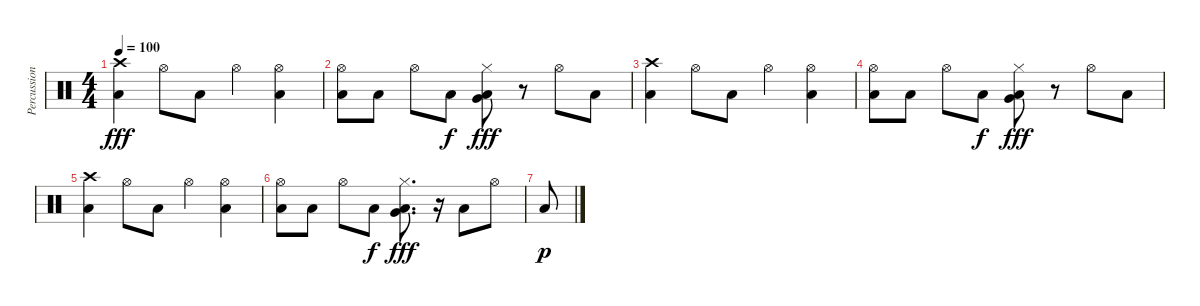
\track ("Percussion" "Percussion") {instrument percussion}
\staff {score}
\articulation defaults
\ts (4 4)
\tempo 100
\clef neutral
\ks c
("Low Floor Tom (hit)" "Crash high (hit)").4{dy fff} "Hi-Hat (open)".8 "Low Tom (hit)".8 "Hi-Hat (open)".4 ("Low Floor Tom (hit)" "Hi-Hat (open)").4 |
("Low Tom (hit)" "Hi-Hat (open)").8 "Low Tom (hit)".8 "Hi-Hat (open)".8 "Low Floor Tom (hit)".8{dy f} ("Low Floor Tom (hit)" "Very Low Tom (hit)" "Hi-Hat (closed)").8{dy fff} r.8 "Hi-Hat (open)".8 "Low Tom (hit)".8 |
("Low Floor Tom (hit)" "Crash high (hit)").4 "Hi-Hat (open)".8 "Low Tom (hit)".8 "Hi-Hat (open)".4 ("Low Floor Tom (hit)" "Hi-Hat (open)").4 |
("Low Tom (hit)" "Hi-Hat (open)").8 "Low Tom (hit)".8 "Hi-Hat (open)".8 "Low Floor Tom (hit)".8{dy f} ("Low Floor Tom (hit)" "Very Low Tom (hit)" "Hi-Hat (closed)").8{dy fff} r.8 "Hi-Hat (open)".8 "Low Tom (hit)".8 |
("Low Floor Tom (hit)" "Crash high (hit)").4 "Hi-Hat (open)".8 "Low Tom (hit)".8 "Hi-Hat (open)".4 ("Low Floor Tom (hit)" "Hi-Hat (open)").4 |
("Low Tom (hit)" "Hi-Hat (open)").8 "Low Tom (hit)".8 "Hi-Hat (open)".8 "Low Floor Tom (hit)".8{dy f} ("Low Floor Tom (hit)" "Very Low Tom (hit)" "Hi-Hat (closed)").8{d dy fff} r.16 "Low Tom (hit)".8 "Hi-Hat (open)".8 |
"Low Floor Tom (hit)".8{dy p}
